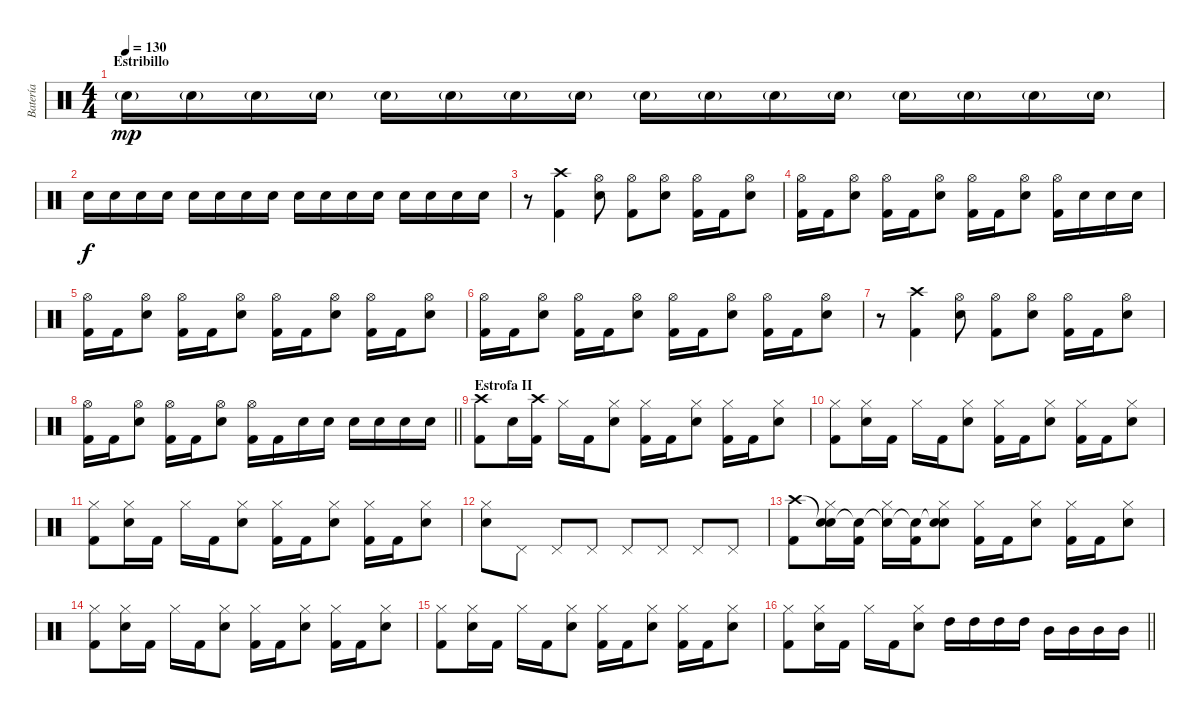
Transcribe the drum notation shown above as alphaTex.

\track ("Batería" "Batería") {instrument percussion}
\staff {score}
\articulation defaults
\ts (4 4)
\section ("" "Estribillo")
\tempo 130
\clef neutral
\ks c "Snare (hit) 2"{g}.16{dy mp} "Snare (hit) 2"{g}.16 "Snare (hit) 2"{g}.16 "Snare (hit) 2"{g}.16 "Snare (hit) 2"{g}.16 "Snare (hit) 2"{g}.16 "Snare (hit) 2"{g}.16 "Snare (hit) 2"{g}.16 "Snare (hit) 2"{g}.16 "Snare (hit) 2"{g}.16 "Snare (hit) 2"{g}.16 "Snare (hit) 2"{g}.16 "Snare (hit) 2"{g}.16 "Snare (hit) 2"{g}.16 "Snare (hit) 2"{g}.16 "Snare (hit) 2"{g}.16
|
"Snare (hit) 2".16{dy f} "Snare (hit) 2".16 "Snare (hit) 2".16 "Snare (hit) 2".16 "Snare (hit) 2".16 "Snare (hit) 2".16 "Snare (hit) 2".16 "Snare (hit) 2".16 "Snare (hit) 2".16 "Snare (hit) 2".16 "Snare (hit) 2".16 "Snare (hit) 2".16 "Snare (hit) 2".16 "Snare (hit) 2".16 "Snare (hit) 2".16 "Snare (hit) 2".16 |
r.8 ("Crash high (hit)" "Kick (hit) 2").4 ("Hi-Hat (open)" "Snare (hit) 2").8 ("Hi-Hat (open)" "Kick (hit) 2").8 ("Hi-Hat (open)" "Snare (hit) 2").8 ("Hi-Hat (open)" "Kick (hit) 2").16 "Kick (hit) 2".16 ("Hi-Hat (open)" "Snare (hit) 2").8 |
("Hi-Hat (open)" "Kick (hit) 2").16 "Kick (hit) 2".16 ("Hi-Hat (open)" "Snare (hit) 2").8 ("Hi-Hat (open)" "Kick (hit) 2").16 "Kick (hit) 2".16 ("Hi-Hat (open)" "Snare (hit) 2").8 ("Hi-Hat (open)" "Kick (hit) 2").16 "Kick (hit) 2".16 ("Hi-Hat (open)" "Snare (hit) 2").8 ("Hi-Hat (open)" "Kick (hit) 2").16 "Snare (hit) 2".16 "Snare (hit) 2".16 "Snare (hit) 2".16 |
("Hi-Hat (open)" "Kick (hit) 2").16 "Kick (hit) 2".16 ("Hi-Hat (open)" "Snare (hit) 2").8 ("Hi-Hat (open)" "Kick (hit) 2").16 "Kick (hit) 2".16 ("Hi-Hat (open)" "Snare (hit) 2").8 ("Hi-Hat (open)" "Kick (hit) 2").16 "Kick (hit) 2".16 ("Hi-Hat (open)" "Snare (hit) 2").8 ("Hi-Hat (open)" "Kick (hit) 2").16 "Kick (hit) 2".16 ("Hi-Hat (open)" "Snare (hit) 2").8 |
("Hi-Hat (open)" "Kick (hit) 2").16 "Kick (hit) 2".16 ("Hi-Hat (open)" "Snare (hit) 2").8 ("Hi-Hat (open)" "Kick (hit) 2").16 "Kick (hit) 2".16 ("Hi-Hat (open)" "Snare (hit) 2").8 ("Hi-Hat (open)" "Kick (hit) 2").16 "Kick (hit) 2".16 ("Hi-Hat (open)" "Snare (hit) 2").8 ("Hi-Hat (open)" "Kick (hit) 2").16 "Kick (hit) 2".16 ("Hi-Hat (open)" "Snare (hit) 2").8 |
r.8 ("Crash high (hit)" "Kick (hit) 2").4 ("Hi-Hat (open)" "Snare (hit) 2").8 ("Hi-Hat (open)" "Kick (hit) 2").8 ("Hi-Hat (open)" "Snare (hit) 2").8 ("Hi-Hat (open)" "Kick (hit) 2").16 "Kick (hit) 2".16 ("Hi-Hat (open)" "Snare (hit) 2").8 |
\barLineRight lightlight
("Hi-Hat (open)" "Kick (hit) 2").16 "Kick (hit) 2".16 ("Hi-Hat (open)" "Snare (hit) 2").8 ("Hi-Hat (open)" "Kick (hit) 2").16 "Kick (hit) 2".16 ("Hi-Hat (open)" "Snare (hit) 2").8 ("Hi-Hat (open)" "Kick (hit) 2").16 "Kick (hit) 2".16 "Snare (hit) 2".16 "Snare (hit) 2".16 "Snare (hit) 2".16 "Snare (hit) 2".16 "Snare (hit) 2".16 "Snare (hit) 2".16 |
\section ("" "Estrofa II")
("Crash high (hit)" "Kick (hit) 2").8 "Snare (hit) 2".16 ("Crash high (hit)" "Kick (hit) 2").16 "Hi-Hat (closed)".16 "Kick (hit) 2".16 ("Hi-Hat (closed)" "Snare (hit) 2").8 ("Hi-Hat (closed)" "Kick (hit) 2").16 "Kick (hit) 2".16 ("Hi-Hat (closed)" "Snare (hit) 2").8 ("Hi-Hat (closed)" "Kick (hit) 2").16 "Kick (hit) 2".16 ("Hi-Hat (closed)" "Snare (hit) 2").8 |
("Hi-Hat (closed)" "Kick (hit) 2").8 ("Hi-Hat (closed)" "Snare (hit) 2").16 "Kick (hit) 2".16 "Hi-Hat (closed)".16 "Kick (hit) 2".16 ("Hi-Hat (closed)" "Snare (hit) 2").8 ("Hi-Hat (closed)" "Kick (hit) 2").16 "Kick (hit) 2".16 ("Hi-Hat (closed)" "Snare (hit) 2").8 ("Hi-Hat (closed)" "Kick (hit) 2").16 "Kick (hit) 2".16 ("Hi-Hat (closed)" "Snare (hit) 2").8 |
("Hi-Hat (closed)" "Kick (hit) 2").8 ("Hi-Hat (closed)" "Snare (hit) 2").16 "Kick (hit) 2".16 "Hi-Hat (closed)".16 "Kick (hit) 2".16 ("Hi-Hat (closed)" "Snare (hit) 2").8 ("Hi-Hat (closed)" "Kick (hit) 2").16 "Kick (hit) 2".16 ("Hi-Hat (closed)" "Snare (hit) 2").8 ("Hi-Hat (closed)" "Kick (hit) 2").16 "Kick (hit) 2".16 ("Hi-Hat (closed)" "Snare (hit) 2").8 |
("Hi-Hat (closed)" "Snare (hit) 2").8 "Pedal Hi-Hat (hit)".8 "Pedal Hi-Hat (hit)".8 "Pedal Hi-Hat (hit)".8 "Pedal Hi-Hat (hit)".8 "Pedal Hi-Hat (hit)".8 "Pedal Hi-Hat (hit)".8 "Pedal Hi-Hat (hit)".8 |
("Crash high (hit)" "Kick (hit) 2").8 ("Snare (hit)"{t} "Hi-Hat (closed)" "Snare (hit) 2").16 ("Snare (hit)"{t} "Kick (hit) 2").16 ("Snare (hit)"{t} "Hi-Hat (closed)").16 ("Snare (hit)"{t} "Kick (hit) 2").16 ("Snare (hit)"{t} "Hi-Hat (closed)" "Snare (hit) 2").8 ("Hi-Hat (closed)" "Kick (hit) 2").16 "Kick (hit) 2".16 ("Hi-Hat (closed)" "Snare (hit) 2").8 ("Hi-Hat (closed)" "Kick (hit) 2").16 "Kick (hit) 2".16 ("Hi-Hat (closed)" "Snare (hit) 2").8 |
("Hi-Hat (closed)" "Kick (hit) 2").8 ("Hi-Hat (closed)" "Snare (hit) 2").16 "Kick (hit) 2".16 "Hi-Hat (closed)".16 "Kick (hit) 2".16 ("Hi-Hat (closed)" "Snare (hit) 2").8 ("Hi-Hat (closed)" "Kick (hit) 2").16 "Kick (hit) 2".16 ("Hi-Hat (closed)" "Snare (hit) 2").8 ("Hi-Hat (closed)" "Kick (hit) 2").16 "Kick (hit) 2".16 ("Hi-Hat (closed)" "Snare (hit) 2").8 |
("Hi-Hat (closed)" "Kick (hit) 2").8 ("Hi-Hat (closed)" "Snare (hit) 2").16 "Kick (hit) 2".16 "Hi-Hat (closed)".16 "Kick (hit) 2".16 ("Hi-Hat (closed)" "Snare (hit) 2").8 ("Hi-Hat (closed)" "Kick (hit) 2").16 "Kick (hit) 2".16 ("Hi-Hat (closed)" "Snare (hit) 2").8 ("Hi-Hat (closed)" "Kick (hit) 2").16 "Kick (hit) 2".16 ("Hi-Hat (closed)" "Snare (hit) 2").8 |
\barLineRight lightlight
("Hi-Hat (closed)" "Kick (hit) 2").8 ("Hi-Hat (closed)" "Snare (hit) 2").16 "Kick (hit) 2".16 "Hi-Hat (closed)".16 "Kick (hit) 2".16 ("Hi-Hat (closed)" "Snare (hit) 2").8 "High Tom (hit)".16 "High Tom (hit)".16 "High Tom (hit)".16 "High Tom (hit)".16 "Mid Tom (hit)".16 "Mid Tom (hit)".16 "Mid Tom (hit)".16 "Mid Tom (hit)".16
